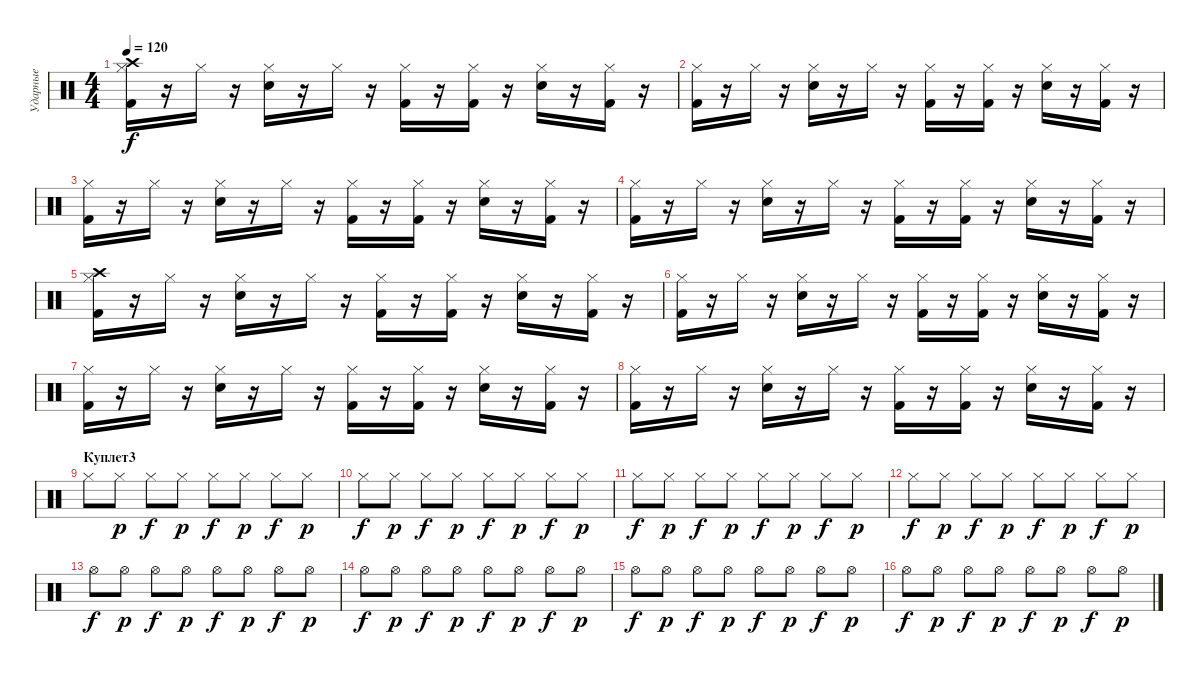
\track ("Ударные" "Ударные") {instrument percussion}
\staff {score}
\articulation defaults
\ts (4 4)
\tempo 120
\clef neutral
\ks c
("Hi-Hat (closed)" "Kick (hit) 2" "Crash high (hit)").16{dy f} r.16 "Hi-Hat (closed)".16 r.16 ("Hi-Hat (closed)" "Snare (hit) 2").16 r.16 "Hi-Hat (closed)".16 r.16 ("Hi-Hat (closed)" "Kick (hit) 2").16 r.16 ("Hi-Hat (closed)" "Kick (hit) 2").16 r.16 ("Hi-Hat (closed)" "Snare (hit) 2").16 r.16 ("Hi-Hat (closed)" "Kick (hit) 2").16 r.16 |
("Hi-Hat (closed)" "Kick (hit) 2").16 r.16 "Hi-Hat (closed)".16 r.16 ("Hi-Hat (closed)" "Snare (hit) 2").16 r.16 "Hi-Hat (closed)".16 r.16 ("Hi-Hat (closed)" "Kick (hit) 2").16 r.16 ("Hi-Hat (closed)" "Kick (hit) 2").16 r.16 ("Hi-Hat (closed)" "Snare (hit) 2").16 r.16 ("Hi-Hat (closed)" "Kick (hit) 2").16 r.16 |
("Hi-Hat (closed)" "Kick (hit) 2").16 r.16 "Hi-Hat (closed)".16 r.16 ("Hi-Hat (closed)" "Snare (hit) 2").16 r.16 "Hi-Hat (closed)".16 r.16 ("Hi-Hat (closed)" "Kick (hit) 2").16 r.16 ("Hi-Hat (closed)" "Kick (hit) 2").16 r.16 ("Hi-Hat (closed)" "Snare (hit) 2").16 r.16 ("Hi-Hat (closed)" "Kick (hit) 2").16 r.16 |
("Hi-Hat (closed)" "Kick (hit) 2").16 r.16 "Hi-Hat (closed)".16 r.16 ("Hi-Hat (closed)" "Snare (hit) 2").16 r.16 "Hi-Hat (closed)".16 r.16 ("Hi-Hat (closed)" "Kick (hit) 2").16 r.16 ("Hi-Hat (closed)" "Kick (hit) 2").16 r.16 ("Hi-Hat (closed)" "Snare (hit) 2").16 r.16 ("Hi-Hat (closed)" "Kick (hit) 2").16 r.16 |
("Hi-Hat (closed)" "Kick (hit) 2" "Crash high (hit)").16 r.16 "Hi-Hat (closed)".16 r.16 ("Hi-Hat (closed)" "Snare (hit) 2").16 r.16 "Hi-Hat (closed)".16 r.16 ("Hi-Hat (closed)" "Kick (hit) 2").16 r.16 ("Hi-Hat (closed)" "Kick (hit) 2").16 r.16 ("Hi-Hat (closed)" "Snare (hit) 2").16 r.16 ("Hi-Hat (closed)" "Kick (hit) 2").16 r.16 |
("Hi-Hat (closed)" "Kick (hit) 2").16 r.16 "Hi-Hat (closed)".16 r.16 ("Hi-Hat (closed)" "Snare (hit) 2").16 r.16 "Hi-Hat (closed)".16 r.16 ("Hi-Hat (closed)" "Kick (hit) 2").16 r.16 ("Hi-Hat (closed)" "Kick (hit) 2").16 r.16 ("Hi-Hat (closed)" "Snare (hit) 2").16 r.16 ("Hi-Hat (closed)" "Kick (hit) 2").16 r.16 |
("Hi-Hat (closed)" "Kick (hit) 2").16 r.16 "Hi-Hat (closed)".16 r.16 ("Hi-Hat (closed)" "Snare (hit) 2").16 r.16 "Hi-Hat (closed)".16 r.16 ("Hi-Hat (closed)" "Kick (hit) 2").16 r.16 ("Hi-Hat (closed)" "Kick (hit) 2").16 r.16 ("Hi-Hat (closed)" "Snare (hit) 2").16 r.16 ("Hi-Hat (closed)" "Kick (hit) 2").16 r.16 |
("Hi-Hat (closed)" "Kick (hit) 2").16 r.16 "Hi-Hat (closed)".16 r.16 ("Hi-Hat (closed)" "Snare (hit) 2").16 r.16 "Hi-Hat (closed)".16 r.16 ("Hi-Hat (closed)" "Kick (hit) 2").16 r.16 ("Hi-Hat (closed)" "Kick (hit) 2").16 r.16 ("Hi-Hat (closed)" "Snare (hit) 2").16 r.16 ("Hi-Hat (closed)" "Kick (hit) 2").16 r.16 |
\section ("" "Куплет3")
"Hi-Hat (closed)".8 "Hi-Hat (closed)".8{dy p} "Hi-Hat (closed)".8{dy f} "Hi-Hat (closed)".8{dy p} "Hi-Hat (closed)".8{dy f} "Hi-Hat (closed)".8{dy p} "Hi-Hat (closed)".8{dy f} "Hi-Hat (closed)".8{dy p} |
"Hi-Hat (closed)".8{dy f} "Hi-Hat (closed)".8{dy p} "Hi-Hat (closed)".8{dy f} "Hi-Hat (closed)".8{dy p} "Hi-Hat (closed)".8{dy f} "Hi-Hat (closed)".8{dy p} "Hi-Hat (closed)".8{dy f} "Hi-Hat (closed)".8{dy p} |
"Hi-Hat (closed)".8{dy f} "Hi-Hat (closed)".8{dy p} "Hi-Hat (closed)".8{dy f} "Hi-Hat (closed)".8{dy p} "Hi-Hat (closed)".8{dy f} "Hi-Hat (closed)".8{dy p} "Hi-Hat (closed)".8{dy f} "Hi-Hat (closed)".8{dy p} |
"Hi-Hat (closed)".8{dy f} "Hi-Hat (closed)".8{dy p} "Hi-Hat (closed)".8{dy f} "Hi-Hat (closed)".8{dy p} "Hi-Hat (closed)".8{dy f} "Hi-Hat (closed)".8{dy p} "Hi-Hat (closed)".8{dy f} "Hi-Hat (closed)".8{dy p} |
"Hi-Hat (open)".8{dy f} "Hi-Hat (open)".8{dy p} "Hi-Hat (open)".8{dy f} "Hi-Hat (open)".8{dy p} "Hi-Hat (open)".8{dy f} "Hi-Hat (open)".8{dy p} "Hi-Hat (open)".8{dy f} "Hi-Hat (open)".8{dy p} |
"Hi-Hat (open)".8{dy f} "Hi-Hat (open)".8{dy p} "Hi-Hat (open)".8{dy f} "Hi-Hat (open)".8{dy p} "Hi-Hat (open)".8{dy f} "Hi-Hat (open)".8{dy p} "Hi-Hat (open)".8{dy f} "Hi-Hat (open)".8{dy p} |
"Hi-Hat (open)".8{dy f} "Hi-Hat (open)".8{dy p} "Hi-Hat (open)".8{dy f} "Hi-Hat (open)".8{dy p} "Hi-Hat (open)".8{dy f} "Hi-Hat (open)".8{dy p} "Hi-Hat (open)".8{dy f} "Hi-Hat (open)".8{dy p} |
"Hi-Hat (open)".8{dy f} "Hi-Hat (open)".8{dy p} "Hi-Hat (open)".8{dy f} "Hi-Hat (open)".8{dy p} "Hi-Hat (open)".8{dy f} "Hi-Hat (open)".8{dy p} "Hi-Hat (open)".8{dy f} "Hi-Hat (open)".8{dy p}
